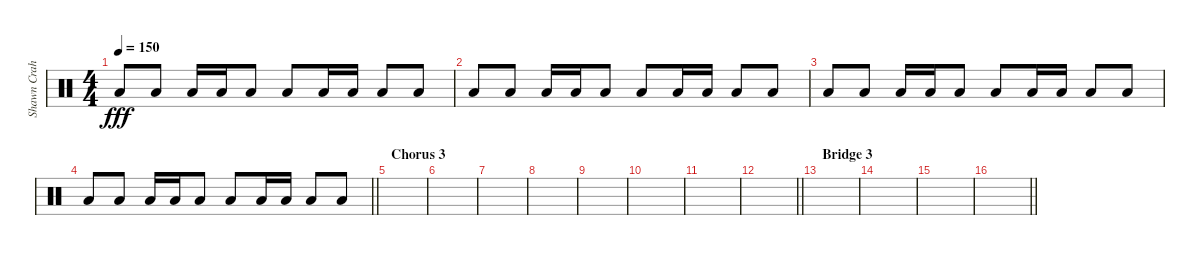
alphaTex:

\track ("Shawn Crahan" "Shawn Crah") {instrument percussion}
\staff {score}
\articulation defaults
\ts (4 4)
\tempo 150
\clef neutral
\ks c "Low Floor Tom (hit)".8{dy fff} "Low Floor Tom (hit)".8 "Low Floor Tom (hit)".16 "Low Floor Tom (hit)".16 "Low Floor Tom (hit)".8 "Low Floor Tom (hit)".8 "Low Floor Tom (hit)".16 "Low Floor Tom (hit)".16 "Low Floor Tom (hit)".8 "Low Floor Tom (hit)".8
|
"Low Floor Tom (hit)".8 "Low Floor Tom (hit)".8 "Low Floor Tom (hit)".16 "Low Floor Tom (hit)".16 "Low Floor Tom (hit)".8 "Low Floor Tom (hit)".8 "Low Floor Tom (hit)".16 "Low Floor Tom (hit)".16 "Low Floor Tom (hit)".8 "Low Floor Tom (hit)".8 |
"Low Floor Tom (hit)".8 "Low Floor Tom (hit)".8 "Low Floor Tom (hit)".16 "Low Floor Tom (hit)".16 "Low Floor Tom (hit)".8 "Low Floor Tom (hit)".8 "Low Floor Tom (hit)".16 "Low Floor Tom (hit)".16 "Low Floor Tom (hit)".8 "Low Floor Tom (hit)".8 |
\barLineRight lightlight "Low Floor Tom (hit)".8 "Low Floor Tom (hit)".8 "Low Floor Tom (hit)".16 "Low Floor Tom (hit)".16 "Low Floor Tom (hit)".8 "Low Floor Tom (hit)".8 "Low Floor Tom (hit)".16 "Low Floor Tom (hit)".16 "Low Floor Tom (hit)".8 "Low Floor Tom (hit)".8
|
\section ("" "Chorus 3")
|
|
|
|
|
|
|
\barLineRight lightlight
|
\section ("" "Bridge 3")
|
|
|
\barLineRight lightlight
